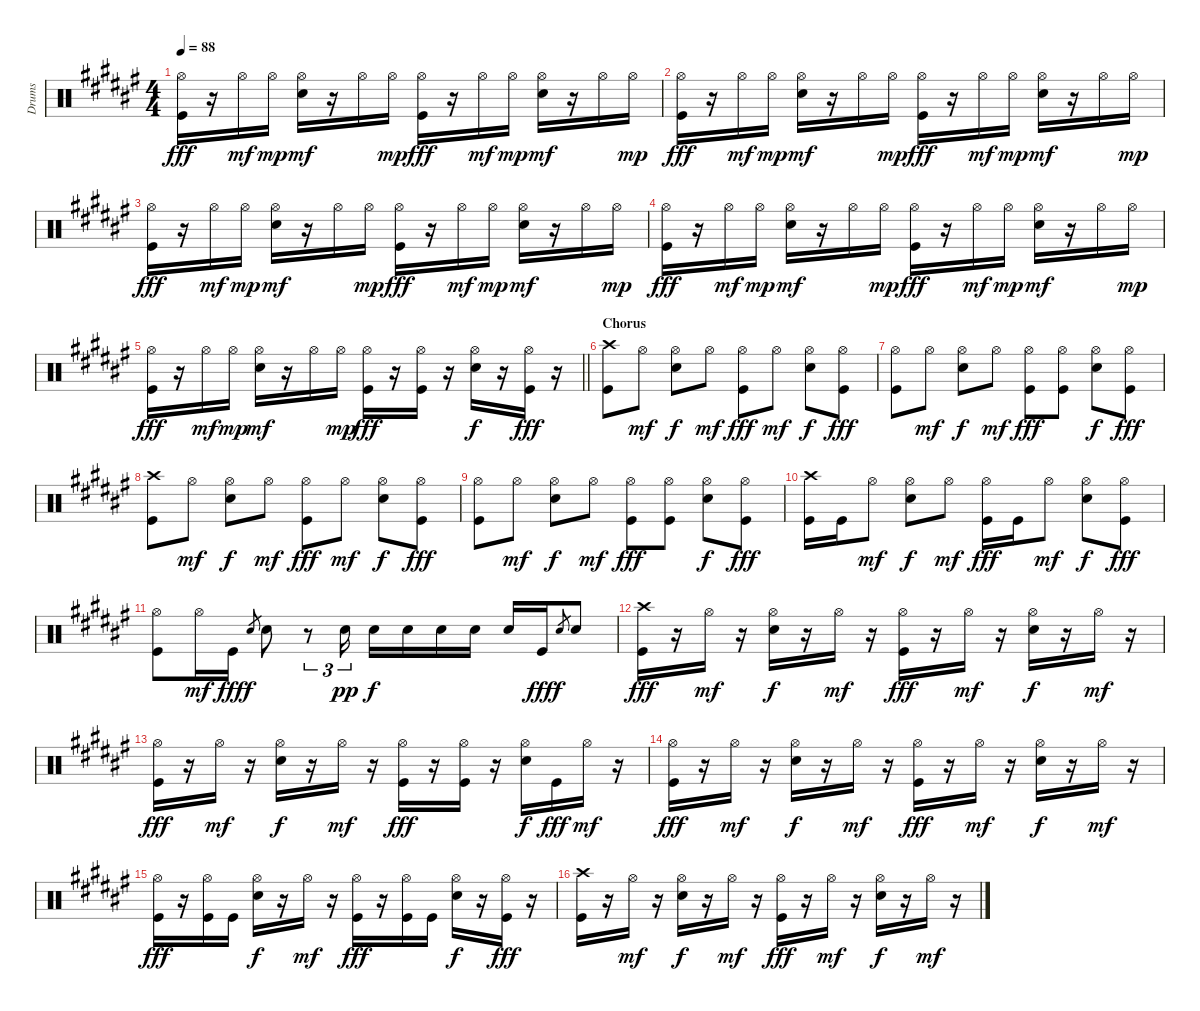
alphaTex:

\track ("Drums" "Drums") {instrument percussion}
\staff {score}
\articulation defaults
\ts (4 4)
\tempo 88
\clef neutral
\ks f#
("Hi-Hat (open)" "Kick (hit)").16{dy fff} r.16 "Hi-Hat (open)".16{dy mf} "Hi-Hat (open)".16{dy mp} ("Hi-Hat (open)" "Snare (hit) 2").16{dy mf} r.16 "Hi-Hat (open)".16 "Hi-Hat (open)".16{dy mp} ("Hi-Hat (open)" "Kick (hit)").16{dy fff} r.16 "Hi-Hat (open)".16{dy mf} "Hi-Hat (open)".16{dy mp} ("Hi-Hat (open)" "Snare (hit) 2").16{dy mf} r.16 "Hi-Hat (open)".16 "Hi-Hat (open)".16{dy mp} |
("Hi-Hat (open)" "Kick (hit)").16{dy fff} r.16 "Hi-Hat (open)".16{dy mf} "Hi-Hat (open)".16{dy mp} ("Hi-Hat (open)" "Snare (hit) 2").16{dy mf} r.16 "Hi-Hat (open)".16 "Hi-Hat (open)".16{dy mp} ("Hi-Hat (open)" "Kick (hit)").16{dy fff} r.16 "Hi-Hat (open)".16{dy mf} "Hi-Hat (open)".16{dy mp} ("Hi-Hat (open)" "Snare (hit) 2").16{dy mf} r.16 "Hi-Hat (open)".16 "Hi-Hat (open)".16{dy mp} |
("Hi-Hat (open)" "Kick (hit)").16{dy fff} r.16 "Hi-Hat (open)".16{dy mf} "Hi-Hat (open)".16{dy mp} ("Hi-Hat (open)" "Snare (hit) 2").16{dy mf} r.16 "Hi-Hat (open)".16 "Hi-Hat (open)".16{dy mp} ("Hi-Hat (open)" "Kick (hit)").16{dy fff} r.16 "Hi-Hat (open)".16{dy mf} "Hi-Hat (open)".16{dy mp} ("Hi-Hat (open)" "Snare (hit) 2").16{dy mf} r.16 "Hi-Hat (open)".16 "Hi-Hat (open)".16{dy mp} |
("Hi-Hat (open)" "Kick (hit)").16{dy fff} r.16 "Hi-Hat (open)".16{dy mf} "Hi-Hat (open)".16{dy mp} ("Hi-Hat (open)" "Snare (hit) 2").16{dy mf} r.16 "Hi-Hat (open)".16 "Hi-Hat (open)".16{dy mp} ("Hi-Hat (open)" "Kick (hit)").16{dy fff} r.16 "Hi-Hat (open)".16{dy mf} "Hi-Hat (open)".16{dy mp} ("Hi-Hat (open)" "Snare (hit) 2").16{dy mf} r.16 "Hi-Hat (open)".16 "Hi-Hat (open)".16{dy mp} |
\barLineRight lightlight
("Hi-Hat (open)" "Kick (hit)").16{dy fff} r.16 "Hi-Hat (open)".16{dy mf} "Hi-Hat (open)".16{dy mp} ("Hi-Hat (open)" "Snare (hit) 2").16{dy mf} r.16 "Hi-Hat (open)".16 "Hi-Hat (open)".16{dy mp} ("Hi-Hat (open)" "Kick (hit)").16{dy fff} r.16 ("Hi-Hat (open)" "Kick (hit)").16 r.16 ("Hi-Hat (open)" "Snare (hit) 2").16{dy f} r.16 ("Hi-Hat (open)" "Kick (hit)").16{dy fff} r.16 |
\section ("" "Chorus")
("Crash high (hit)" "Kick (hit)").8 "Hi-Hat (open)".8{dy mf} ("Hi-Hat (open)" "Snare (hit) 2").8{dy f} "Hi-Hat (open)".8{dy mf} ("Hi-Hat (open)" "Kick (hit)").8{dy fff} "Hi-Hat (open)".8{dy mf} ("Hi-Hat (open)" "Snare (hit) 2").8{dy f} ("Hi-Hat (open)" "Kick (hit)").8{dy fff} |
("Hi-Hat (open)" "Kick (hit)").8 "Hi-Hat (open)".8{dy mf} ("Hi-Hat (open)" "Snare (hit) 2").8{dy f} "Hi-Hat (open)".8{dy mf} ("Hi-Hat (open)" "Kick (hit)").8{dy fff} ("Hi-Hat (open)" "Kick (hit)").8 ("Hi-Hat (open)" "Snare (hit) 2").8{dy f} ("Hi-Hat (open)" "Kick (hit)").8{dy fff} |
("Crash high (hit)" "Kick (hit)").8 "Hi-Hat (open)".8{dy mf} ("Hi-Hat (open)" "Snare (hit) 2").8{dy f} "Hi-Hat (open)".8{dy mf} ("Hi-Hat (open)" "Kick (hit)").8{dy fff} "Hi-Hat (open)".8{dy mf} ("Hi-Hat (open)" "Snare (hit) 2").8{dy f} ("Hi-Hat (open)" "Kick (hit)").8{dy fff} |
("Hi-Hat (open)" "Kick (hit)").8 "Hi-Hat (open)".8{dy mf} ("Hi-Hat (open)" "Snare (hit) 2").8{dy f} "Hi-Hat (open)".8{dy mf} ("Hi-Hat (open)" "Kick (hit)").8{dy fff} ("Hi-Hat (open)" "Kick (hit)").8 ("Hi-Hat (open)" "Snare (hit) 2").8{dy f} ("Hi-Hat (open)" "Kick (hit)").8{dy fff} |
("Crash high (hit)" "Kick (hit)").16 "Kick (hit)".16 "Hi-Hat (open)".8{dy mf} ("Hi-Hat (open)" "Snare (hit) 2").8{dy f} "Hi-Hat (open)".8{dy mf} ("Hi-Hat (open)" "Kick (hit)").16{dy fff} "Kick (hit)".16 "Hi-Hat (open)".8{dy mf} ("Hi-Hat (open)" "Snare (hit) 2").8{dy f} ("Hi-Hat (open)" "Kick (hit)").8{dy fff} |
("Hi-Hat (open)" "Kick (hit)").8 "Hi-Hat (open)".16{dy mf} "Kick (hit)".16{dy fff} "Snare (hit) 2".8{gr dy f} "Snare (hit) 2".8 r.8{tu (3 2)} "Snare (hit) 2".16{tu (3 2) dy pp} "Snare (hit) 2".16{dy f} "Snare (hit) 2".16 "Snare (hit) 2".16 "Snare (hit) 2".16 "Snare (hit) 2".16 "Kick (hit)".16{dy fff} "Snare (hit) 2".8{gr dy f} "Snare (hit) 2".8 |
("Crash high (hit)" "Kick (hit)").16{dy fff} r.16 "Hi-Hat (open)".16{dy mf} r.16 ("Hi-Hat (open)" "Snare (hit) 2").16{dy f} r.16 "Hi-Hat (open)".16{dy mf} r.16 ("Hi-Hat (open)" "Kick (hit)").16{dy fff} r.16 "Hi-Hat (open)".16{dy mf} r.16 ("Hi-Hat (open)" "Snare (hit) 2").16{dy f} r.16 "Hi-Hat (open)".16{dy mf} r.16 |
("Hi-Hat (open)" "Kick (hit)").16{dy fff} r.16 "Hi-Hat (open)".16{dy mf} r.16 ("Hi-Hat (open)" "Snare (hit) 2").16{dy f} r.16 "Hi-Hat (open)".16{dy mf} r.16 ("Hi-Hat (open)" "Kick (hit)").16{dy fff} r.16 ("Hi-Hat (open)" "Kick (hit)").16 r.16 ("Hi-Hat (open)" "Snare (hit) 2").16{dy f} "Kick (hit)".16{dy fff} "Hi-Hat (open)".16{dy mf} r.16 |
("Hi-Hat (open)" "Kick (hit)").16{dy fff} r.16 "Hi-Hat (open)".16{dy mf} r.16 ("Hi-Hat (open)" "Snare (hit) 2").16{dy f} r.16 "Hi-Hat (open)".16{dy mf} r.16 ("Hi-Hat (open)" "Kick (hit)").16{dy fff} r.16 "Hi-Hat (open)".16{dy mf} r.16 ("Hi-Hat (open)" "Snare (hit) 2").16{dy f} r.16 "Hi-Hat (open)".16{dy mf} r.16 |
("Hi-Hat (open)" "Kick (hit)").16{dy fff} r.16 ("Hi-Hat (open)" "Kick (hit)").16 "Kick (hit)".16 ("Hi-Hat (open)" "Snare (hit) 2").16{dy f} r.16 "Hi-Hat (open)".16{dy mf} r.16 ("Hi-Hat (open)" "Kick (hit)").16{dy fff} r.16 ("Hi-Hat (open)" "Kick (hit)").16 "Kick (hit)".16 ("Hi-Hat (open)" "Snare (hit) 2").16{dy f} r.16 ("Hi-Hat (open)" "Kick (hit)").16{dy fff} r.16 |
("Crash high (hit)" "Kick (hit)").16 r.16 "Hi-Hat (open)".16{dy mf} r.16 ("Hi-Hat (open)" "Snare (hit) 2").16{dy f} r.16 "Hi-Hat (open)".16{dy mf} r.16 ("Hi-Hat (open)" "Kick (hit)").16{dy fff} r.16 "Hi-Hat (open)".16{dy mf} r.16 ("Hi-Hat (open)" "Snare (hit) 2").16{dy f} r.16 "Hi-Hat (open)".16{dy mf} r.16
